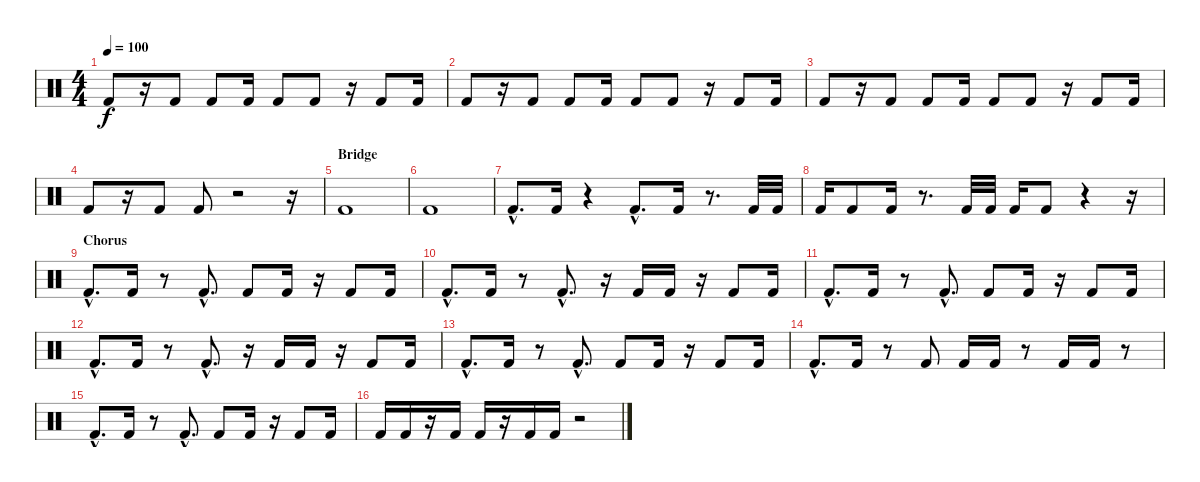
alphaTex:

\track "" {instrument percussion}
\staff {score}
\articulation defaults
\ts (4 4)
\tempo 100
\clef neutral
\ks c "Kick (hit) 2".8{dy f}
r.16 "Kick (hit) 2".8 "Kick (hit) 2".8 "Kick (hit) 2".16 "Kick (hit) 2".8 "Kick (hit) 2".8 r.16 "Kick (hit) 2".8 "Kick (hit) 2".16 |
"Kick (hit) 2".8 r.16 "Kick (hit) 2".8 "Kick (hit) 2".8 "Kick (hit) 2".16 "Kick (hit) 2".8 "Kick (hit) 2".8 r.16 "Kick (hit) 2".8 "Kick (hit) 2".16 |
"Kick (hit) 2".8 r.16 "Kick (hit) 2".8 "Kick (hit) 2".8 "Kick (hit) 2".16 "Kick (hit) 2".8 "Kick (hit) 2".8 r.16 "Kick (hit) 2".8 "Kick (hit) 2".16 |
"Kick (hit) 2".8 r.16 "Kick (hit) 2".8 "Kick (hit) 2".8 r.2 r.16 |
\section ("" "Bridge")
"Kick (hit) 2".1 |
"Kick (hit) 2".1 |
"Kick (hit) 2"{hac}.8{d} "Kick (hit) 2".16 r.4 "Kick (hit) 2"{hac}.8{d} "Kick (hit) 2".16 r.8{d} "Kick (hit) 2".32 "Kick (hit) 2".32 |
"Kick (hit) 2".16 "Kick (hit) 2".8 "Kick (hit) 2".16 r.8{d} "Kick (hit) 2".32 "Kick (hit) 2".32 "Kick (hit) 2".16 "Kick (hit) 2".8 r.4 r.16 |
\section ("" "Chorus")
"Kick (hit) 2"{hac}.8{d} "Kick (hit) 2".16 r.8 "Kick (hit) 2"{hac}.8{d} "Kick (hit) 2".8 "Kick (hit) 2".16 r.16 "Kick (hit) 2".8 "Kick (hit) 2".16 |
"Kick (hit) 2"{hac}.8{d} "Kick (hit) 2".16 r.8 "Kick (hit) 2"{hac}.8{d} r.16 "Kick (hit) 2".16 "Kick (hit) 2".16 r.16 "Kick (hit) 2".8 "Kick (hit) 2".16 |
"Kick (hit) 2"{hac}.8{d} "Kick (hit) 2".16 r.8 "Kick (hit) 2"{hac}.8{d} "Kick (hit) 2".8 "Kick (hit) 2".16 r.16 "Kick (hit) 2".8 "Kick (hit) 2".16 |
"Kick (hit) 2"{hac}.8{d} "Kick (hit) 2".16 r.8 "Kick (hit) 2"{hac}.8{d} r.16 "Kick (hit) 2".16 "Kick (hit) 2".16 r.16 "Kick (hit) 2".8 "Kick (hit) 2".16 |
"Kick (hit) 2"{hac}.8{d} "Kick (hit) 2".16 r.8 "Kick (hit) 2"{hac}.8{d} "Kick (hit) 2".8 "Kick (hit) 2".16 r.16 "Kick (hit) 2".8 "Kick (hit) 2".16 |
"Kick (hit) 2"{hac}.8{d} "Kick (hit) 2".16 r.8 "Kick (hit) 2".8 "Kick (hit) 2".16 "Kick (hit) 2".16 r.8 "Kick (hit) 2".16 "Kick (hit) 2".16 r.8 |
"Kick (hit) 2"{hac}.8{d} "Kick (hit) 2".16 r.8 "Kick (hit) 2"{hac}.8{d} "Kick (hit) 2".8 "Kick (hit) 2".16 r.16 "Kick (hit) 2".8 "Kick (hit) 2".16 |
"Kick (hit) 2".16 "Kick (hit) 2".16 r.16 "Kick (hit) 2".16 "Kick (hit) 2".16 r.16 "Kick (hit) 2".16 "Kick (hit) 2".16 r.2
